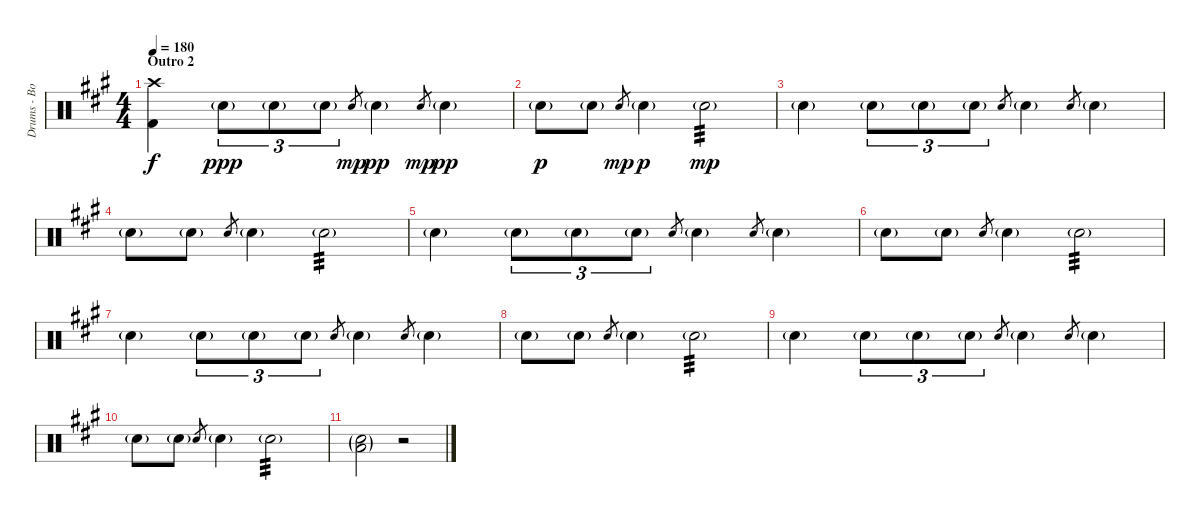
\track ("Drums - Bob Bryar" "Drums - Bo") {instrument percussion}
\staff {score}
\articulation defaults
\ts (4 4)
\section ("" "Outro 2")
\tempo 180
\clef neutral
\ks a
("Kick (hit) 2" "Crash high (hit)").4{dy f} "Electric Snare (hit)"{g}.8{tu (3 2) dy ppp} "Electric Snare (hit)"{g}.8{tu (3 2)} "Electric Snare (hit)"{g}.8{tu (3 2)} "Electric Snare (hit)".8{gr dy mp} "Electric Snare (hit)"{g}.4{dy pp} "Electric Snare (hit)".8{gr dy mp} "Electric Snare (hit)"{g}.4{dy pp} |
"Electric Snare (hit)"{g}.8{dy p} "Electric Snare (hit)"{g}.8 "Electric Snare (hit)".8{gr dy mp} "Electric Snare (hit)"{g}.4{dy p} "Electric Snare (hit)"{g}.2{tp 3 dy mp} |
"Electric Snare (hit)"{g}.4 "Electric Snare (hit)"{g}.8{tu (3 2)} "Electric Snare (hit)"{g}.8{tu (3 2)} "Electric Snare (hit)"{g}.8{tu (3 2)} "Electric Snare (hit)".8{gr} "Electric Snare (hit)"{g}.4 "Electric Snare (hit)".8{gr} "Electric Snare (hit)"{g}.4 |
"Electric Snare (hit)"{g}.8 "Electric Snare (hit)"{g}.8 "Electric Snare (hit)".8{gr} "Electric Snare (hit)"{g}.4 "Electric Snare (hit)"{g}.2{tp 3} |
"Electric Snare (hit)"{g}.4 "Electric Snare (hit)"{g}.8{tu (3 2)} "Electric Snare (hit)"{g}.8{tu (3 2)} "Electric Snare (hit)"{g}.8{tu (3 2)} "Electric Snare (hit)".8{gr} "Electric Snare (hit)"{g}.4 "Electric Snare (hit)".8{gr} "Electric Snare (hit)"{g}.4 |
"Electric Snare (hit)"{g}.8 "Electric Snare (hit)"{g}.8 "Electric Snare (hit)".8{gr} "Electric Snare (hit)"{g}.4 "Electric Snare (hit)"{g}.2{tp 3} |
"Electric Snare (hit)"{g}.4 "Electric Snare (hit)"{g}.8{tu (3 2)} "Electric Snare (hit)"{g}.8{tu (3 2)} "Electric Snare (hit)"{g}.8{tu (3 2)} "Electric Snare (hit)".8{gr} "Electric Snare (hit)"{g}.4 "Electric Snare (hit)".8{gr} "Electric Snare (hit)"{g}.4 |
"Electric Snare (hit)"{g}.8 "Electric Snare (hit)"{g}.8 "Electric Snare (hit)".8{gr} "Electric Snare (hit)"{g}.4 "Electric Snare (hit)"{g}.2{tp 3} |
"Electric Snare (hit)"{g}.4 "Electric Snare (hit)"{g}.8{tu (3 2)} "Electric Snare (hit)"{g}.8{tu (3 2)} "Electric Snare (hit)"{g}.8{tu (3 2)} "Electric Snare (hit)".8{gr} "Electric Snare (hit)"{g}.4 "Electric Snare (hit)".8{gr} "Electric Snare (hit)"{g}.4 |
"Electric Snare (hit)"{g}.8 "Electric Snare (hit)"{g}.8 "Electric Snare (hit)".8{gr} "Electric Snare (hit)"{g}.4 "Electric Snare (hit)"{g}.2{tp 3} |
("Electric Snare (hit)"{g} "Low Floor Tom (hit)"{g}).2 r.2
